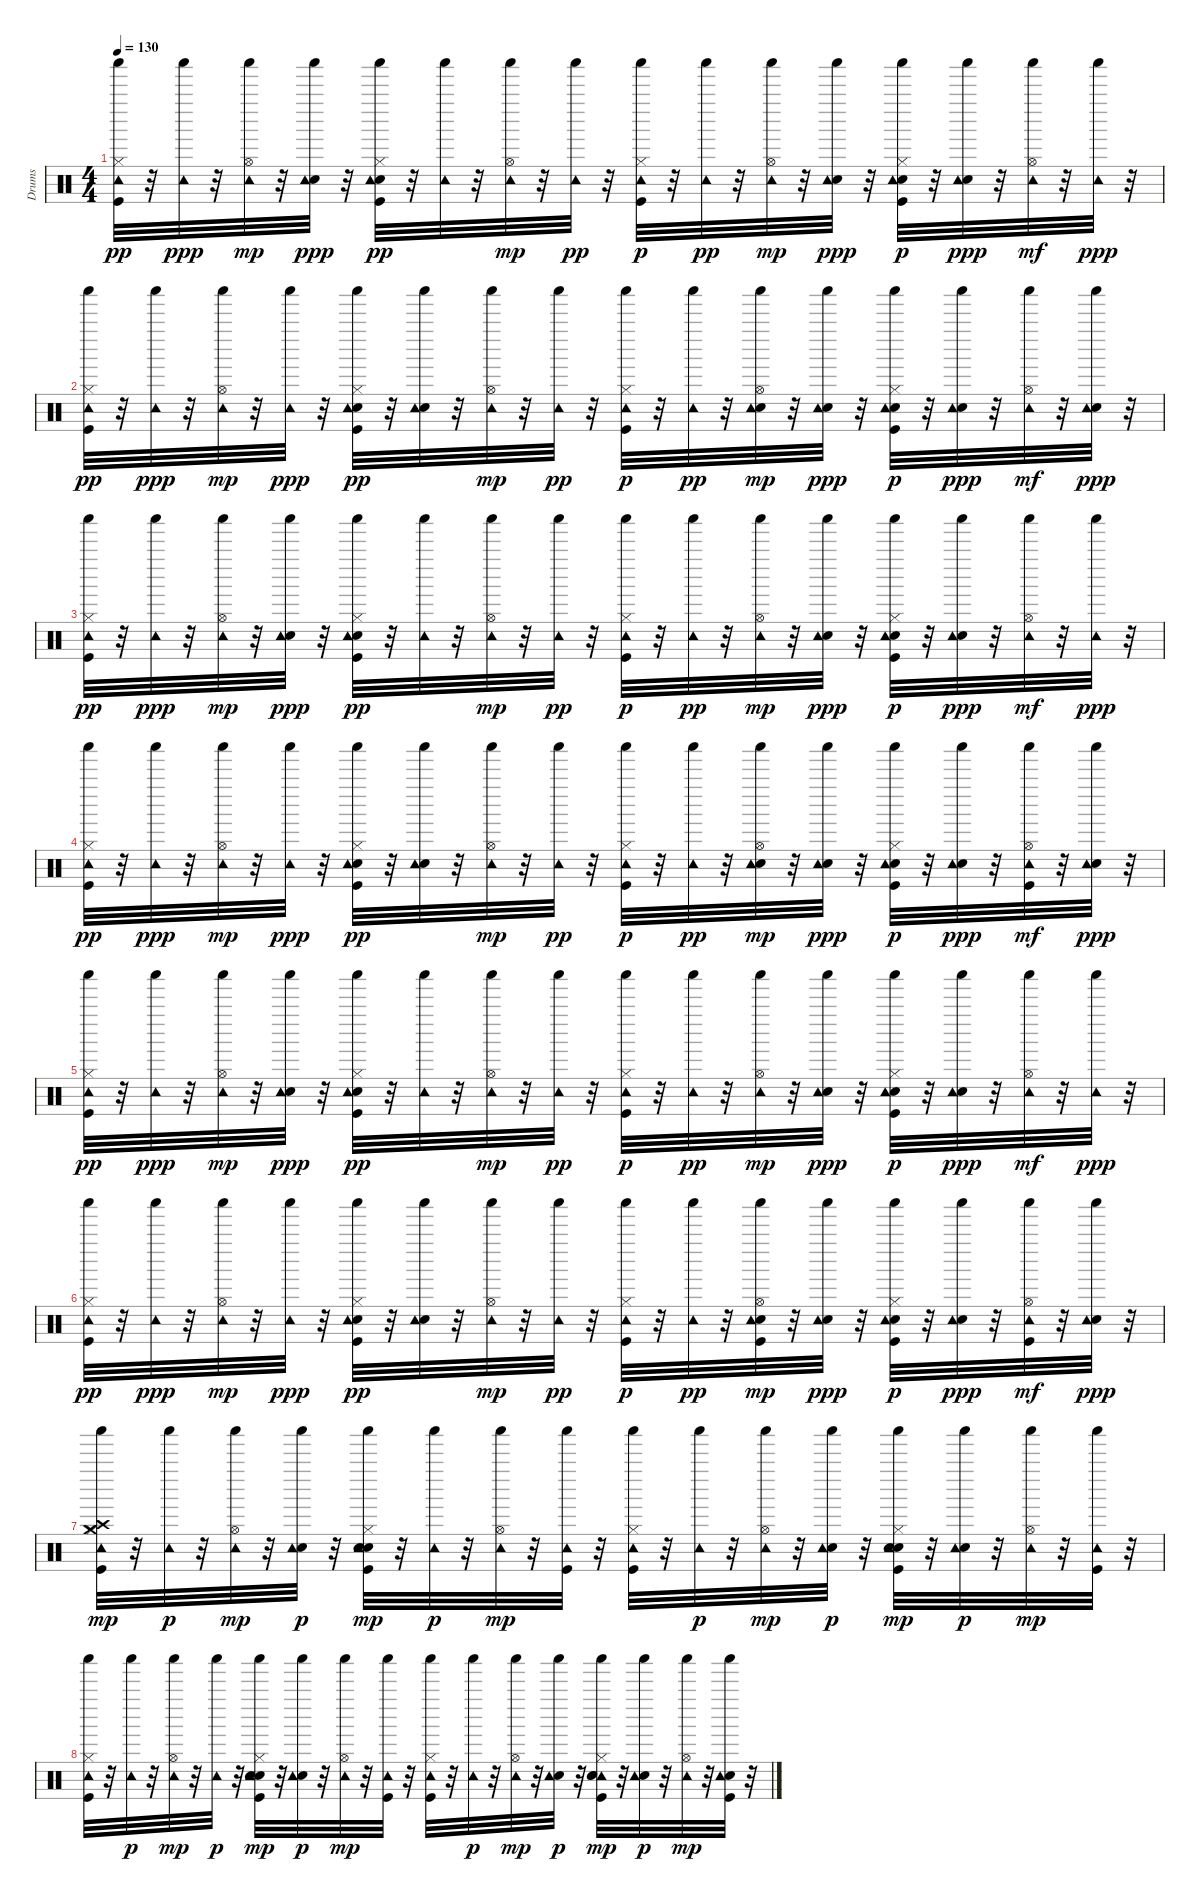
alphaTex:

\track ("Drums" "Drums") {instrument percussion}
\staff {score}
\articulation defaults
\ts (4 4)
\tempo 130
\clef neutral
\ks c
("Kick (hit)" "Shaker (hit)" "Hi-Hat (closed)" "Tambourine (hit)").32{dy pp} r.32 ("Shaker (hit)" "Tambourine (hit)").32{dy ppp} r.32 ("Shaker (hit)" "Hi-Hat (open)" "Tambourine (hit)").32{dy mp} r.32 ("Shaker (hit)" "Electric Snare (hit)" "Tambourine (hit)").32{dy ppp} r.32 ("Kick (hit)" "Shaker (hit)" "Hi-Hat (closed)" "Hand Clap (hit)" "Tambourine (hit)").32{dy pp} r.32 ("Shaker (hit)" "Tambourine (hit)").32 r.32 ("Shaker (hit)" "Hi-Hat (open)" "Tambourine (hit)").32{dy mp} r.32 ("Shaker (hit)" "Tambourine (hit)").32{dy pp} r.32 ("Kick (hit)" "Shaker (hit)" "Hi-Hat (closed)" "Tambourine (hit)").32{dy p} r.32 ("Shaker (hit)" "Tambourine (hit)").32{dy pp} r.32 ("Shaker (hit)" "Hi-Hat (open)" "Tambourine (hit)").32{dy mp} r.32 ("Shaker (hit)" "Electric Snare (hit)" "Tambourine (hit)").32{dy ppp} r.32 ("Kick (hit)" "Shaker (hit)" "Hi-Hat (closed)" "Hand Clap (hit)" "Tambourine (hit)").32{dy p} r.32 ("Shaker (hit)" "Electric Snare (hit)" "Tambourine (hit)").32{dy ppp} r.32 ("Shaker (hit)" "Hi-Hat (open)" "Tambourine (hit)").32{dy mf} r.32 ("Shaker (hit)" "Tambourine (hit)").32{dy ppp} r.32 |
("Kick (hit)" "Shaker (hit)" "Hi-Hat (closed)" "Tambourine (hit)").32{dy pp} r.32 ("Shaker (hit)" "Tambourine (hit)").32{dy ppp} r.32 ("Shaker (hit)" "Hi-Hat (open)" "Tambourine (hit)").32{dy mp} r.32 ("Shaker (hit)" "Tambourine (hit)").32{dy ppp} r.32 ("Kick (hit)" "Shaker (hit)" "Hi-Hat (closed)" "Hand Clap (hit)" "Tambourine (hit)").32{dy pp} r.32 ("Shaker (hit)" "Electric Snare (hit)" "Tambourine (hit)").32 r.32 ("Shaker (hit)" "Hi-Hat (open)" "Tambourine (hit)").32{dy mp} r.32 ("Shaker (hit)" "Tambourine (hit)").32{dy pp} r.32 ("Kick (hit)" "Shaker (hit)" "Hi-Hat (closed)" "Tambourine (hit)").32{dy p} r.32 ("Shaker (hit)" "Tambourine (hit)").32{dy pp} r.32 ("Shaker (hit)" "Hand Clap (hit)" "Hi-Hat (open)" "Tambourine (hit)").32{dy mp} r.32 ("Shaker (hit)" "Electric Snare (hit)" "Tambourine (hit)").32{dy ppp} r.32 ("Kick (hit)" "Shaker (hit)" "Hi-Hat (closed)" "Hand Clap (hit)" "Tambourine (hit)").32{dy p} r.32 ("Shaker (hit)" "Electric Snare (hit)" "Tambourine (hit)").32{dy ppp} r.32 ("Shaker (hit)" "Hi-Hat (open)" "Tambourine (hit)").32{dy mf} r.32 ("Shaker (hit)" "Electric Snare (hit)" "Tambourine (hit)").32{dy ppp} r.32 |
("Kick (hit)" "Hi-Hat (closed)" "Shaker (hit)" "Tambourine (hit)").32{dy pp} r.32 ("Shaker (hit)" "Tambourine (hit)").32{dy ppp} r.32 ("Shaker (hit)" "Hi-Hat (open)" "Tambourine (hit)").32{dy mp} r.32 ("Shaker (hit)" "Electric Snare (hit)" "Tambourine (hit)").32{dy ppp} r.32 ("Kick (hit)" "Hi-Hat (closed)" "Hand Clap (hit)" "Shaker (hit)" "Tambourine (hit)").32{dy pp} r.32 ("Shaker (hit)" "Tambourine (hit)").32 r.32 ("Shaker (hit)" "Hi-Hat (open)" "Tambourine (hit)").32{dy mp} r.32 ("Shaker (hit)" "Tambourine (hit)").32{dy pp} r.32 ("Kick (hit)" "Hi-Hat (closed)" "Shaker (hit)" "Tambourine (hit)").32{dy p} r.32 ("Shaker (hit)" "Tambourine (hit)").32{dy pp} r.32 ("Shaker (hit)" "Hi-Hat (open)" "Tambourine (hit)").32{dy mp} r.32 ("Shaker (hit)" "Electric Snare (hit)" "Tambourine (hit)").32{dy ppp} r.32 ("Kick (hit)" "Hi-Hat (closed)" "Hand Clap (hit)" "Shaker (hit)" "Tambourine (hit)").32{dy p} r.32 ("Shaker (hit)" "Electric Snare (hit)" "Tambourine (hit)").32{dy ppp} r.32 ("Shaker (hit)" "Hi-Hat (open)" "Tambourine (hit)").32{dy mf} r.32 ("Shaker (hit)" "Tambourine (hit)").32{dy ppp} r.32 |
("Kick (hit)" "Hi-Hat (closed)" "Shaker (hit)" "Tambourine (hit)").32{dy pp} r.32 ("Shaker (hit)" "Tambourine (hit)").32{dy ppp} r.32 ("Shaker (hit)" "Hi-Hat (open)" "Tambourine (hit)").32{dy mp} r.32 ("Shaker (hit)" "Tambourine (hit)").32{dy ppp} r.32 ("Kick (hit)" "Hi-Hat (closed)" "Hand Clap (hit)" "Shaker (hit)" "Tambourine (hit)").32{dy pp} r.32 ("Shaker (hit)" "Electric Snare (hit)" "Tambourine (hit)").32 r.32 ("Shaker (hit)" "Hi-Hat (open)" "Tambourine (hit)").32{dy mp} r.32 ("Shaker (hit)" "Tambourine (hit)").32{dy pp} r.32 ("Kick (hit)" "Hi-Hat (closed)" "Shaker (hit)" "Tambourine (hit)").32{dy p} r.32 ("Shaker (hit)" "Tambourine (hit)").32{dy pp} r.32 ("Hand Clap (hit)" "Shaker (hit)" "Hi-Hat (open)" "Tambourine (hit)").32{dy mp} r.32 ("Shaker (hit)" "Electric Snare (hit)" "Tambourine (hit)").32{dy ppp} r.32 ("Kick (hit)" "Hi-Hat (closed)" "Hand Clap (hit)" "Shaker (hit)" "Tambourine (hit)").32{dy p} r.32 ("Shaker (hit)" "Electric Snare (hit)" "Tambourine (hit)").32{dy ppp} r.32 ("Kick (hit)" "Shaker (hit)" "Hi-Hat (open)" "Tambourine (hit)").32{dy mf} r.32 ("Shaker (hit)" "Electric Snare (hit)" "Tambourine (hit)").32{dy ppp} r.32 |
("Kick (hit)" "Shaker (hit)" "Hi-Hat (closed)" "Tambourine (hit)").32{dy pp} r.32 ("Shaker (hit)" "Tambourine (hit)").32{dy ppp} r.32 ("Shaker (hit)" "Hi-Hat (open)" "Tambourine (hit)").32{dy mp} r.32 ("Shaker (hit)" "Electric Snare (hit)" "Tambourine (hit)").32{dy ppp} r.32 ("Kick (hit)" "Shaker (hit)" "Hi-Hat (closed)" "Hand Clap (hit)" "Tambourine (hit)").32{dy pp} r.32 ("Shaker (hit)" "Tambourine (hit)").32 r.32 ("Shaker (hit)" "Hi-Hat (open)" "Tambourine (hit)").32{dy mp} r.32 ("Shaker (hit)" "Tambourine (hit)").32{dy pp} r.32 ("Kick (hit)" "Shaker (hit)" "Hi-Hat (closed)" "Tambourine (hit)").32{dy p} r.32 ("Shaker (hit)" "Tambourine (hit)").32{dy pp} r.32 ("Shaker (hit)" "Hi-Hat (open)" "Tambourine (hit)").32{dy mp} r.32 ("Shaker (hit)" "Electric Snare (hit)" "Tambourine (hit)").32{dy ppp} r.32 ("Kick (hit)" "Shaker (hit)" "Hi-Hat (closed)" "Hand Clap (hit)" "Tambourine (hit)").32{dy p} r.32 ("Shaker (hit)" "Electric Snare (hit)" "Tambourine (hit)").32{dy ppp} r.32 ("Shaker (hit)" "Hi-Hat (open)" "Tambourine (hit)").32{dy mf} r.32 ("Shaker (hit)" "Tambourine (hit)").32{dy ppp} r.32 |
("Kick (hit)" "Shaker (hit)" "Hi-Hat (closed)" "Tambourine (hit)").32{dy pp} r.32 ("Shaker (hit)" "Tambourine (hit)").32{dy ppp} r.32 ("Shaker (hit)" "Hi-Hat (open)" "Tambourine (hit)").32{dy mp} r.32 ("Shaker (hit)" "Tambourine (hit)").32{dy ppp} r.32 ("Kick (hit)" "Shaker (hit)" "Hi-Hat (closed)" "Hand Clap (hit)" "Tambourine (hit)").32{dy pp} r.32 ("Shaker (hit)" "Electric Snare (hit)" "Tambourine (hit)").32 r.32 ("Shaker (hit)" "Hi-Hat (open)" "Tambourine (hit)").32{dy mp} r.32 ("Shaker (hit)" "Tambourine (hit)").32{dy pp} r.32 ("Kick (hit)" "Shaker (hit)" "Hi-Hat (closed)" "Tambourine (hit)").32{dy p} r.32 ("Shaker (hit)" "Tambourine (hit)").32{dy pp} r.32 ("Shaker (hit)" "Hand Clap (hit)" "Kick (hit)" "Hi-Hat (open)" "Tambourine (hit)").32{dy mp} r.32 ("Shaker (hit)" "Electric Snare (hit)" "Tambourine (hit)").32{dy ppp} r.32 ("Kick (hit)" "Shaker (hit)" "Hi-Hat (closed)" "Hand Clap (hit)" "Tambourine (hit)").32{dy p} r.32 ("Shaker (hit)" "Electric Snare (hit)" "Tambourine (hit)").32{dy ppp} r.32 ("Shaker (hit)" "Kick (hit)" "Hi-Hat (open)" "Tambourine (hit)").32{dy mf} r.32 ("Shaker (hit)" "Electric Snare (hit)" "Tambourine (hit)").32{dy ppp} r.32 |
("Kick (hit)" "Hi-Hat (closed)" "Crash high (hit)" "Crash medium (hit)" "Tambourine (hit)" "Shaker (hit)").32{dy mp} r.32 ("Tambourine (hit)" "Shaker (hit)").32{dy p} r.32 ("Tambourine (hit)" "Hi-Hat (open)" "Shaker (hit)").32{dy mp} r.32 ("Electric Snare (hit)" "Tambourine (hit)" "Shaker (hit)").32{dy p} r.32 ("Kick (hit)" "Hi-Hat (closed)" "Hand Clap (hit)" "Tambourine (hit)" "Shaker (hit)" "Snare (hit) 2").32{dy mp} r.32 ("Tambourine (hit)" "Shaker (hit)").32{dy p} r.32 ("Tambourine (hit)" "Hi-Hat (open)" "Shaker (hit)").32{dy mp} r.32 ("Tambourine (hit)" "Shaker (hit)" "Kick (hit)").32 r.32 ("Hi-Hat (closed)" "Tambourine (hit)" "Shaker (hit)" "Kick (hit)").32 r.32 ("Tambourine (hit)" "Shaker (hit)").32{dy p} r.32 ("Tambourine (hit)" "Hi-Hat (open)" "Shaker (hit)").32{dy mp} r.32 ("Electric Snare (hit)" "Tambourine (hit)" "Shaker (hit)").32{dy p} r.32 ("Kick (hit)" "Hi-Hat (closed)" "Hand Clap (hit)" "Tambourine (hit)" "Shaker (hit)" "Snare (hit) 2").32{dy mp} r.32 ("Electric Snare (hit)" "Tambourine (hit)" "Shaker (hit)").32{dy p} r.32 ("Tambourine (hit)" "Hi-Hat (open)" "Shaker (hit)").32{dy mp} r.32 ("Tambourine (hit)" "Shaker (hit)" "Kick (hit)").32 r.32 |
("Kick (hit)" "Hi-Hat (closed)" "Tambourine (hit)" "Shaker (hit)").32 r.32 ("Tambourine (hit)" "Shaker (hit)").32{dy p} r.32 ("Tambourine (hit)" "Hi-Hat (open)" "Shaker (hit)").32{dy mp} r.32 ("Tambourine (hit)" "Shaker (hit)").32{dy p} r.32 ("Kick (hit)" "Hi-Hat (closed)" "Hand Clap (hit)" "Tambourine (hit)" "Shaker (hit)" "Snare (hit) 2").32{dy mp} r.32 ("Electric Snare (hit)" "Tambourine (hit)" "Shaker (hit)").32{dy p} r.32 ("Tambourine (hit)" "Hi-Hat (open)" "Shaker (hit)").32{dy mp} r.32 ("Tambourine (hit)" "Shaker (hit)" "Kick (hit)").32 r.32 ("Kick (hit)" "Hi-Hat (closed)" "Tambourine (hit)" "Shaker (hit)").32 r.32 ("Tambourine (hit)" "Shaker (hit)").32{dy p} r.32 ("Tambourine (hit)" "Hi-Hat (open)" "Shaker (hit)").32{dy mp} r.32 ("Electric Snare (hit)" "Tambourine (hit)" "Shaker (hit)").32{dy p} r.32 ("Kick (hit)" "Hi-Hat (closed)" "Tambourine (hit)" "Shaker (hit)" "Hand Clap (hit)" "Snare (hit) 2").32{dy mp} r.32 ("Electric Snare (hit)" "Tambourine (hit)" "Shaker (hit)").32{dy p} r.32 ("Tambourine (hit)" "Hi-Hat (open)" "Shaker (hit)").32{dy mp} r.32 ("Electric Snare (hit)" "Tambourine (hit)" "Shaker (hit)" "Kick (hit)").32 r.32
